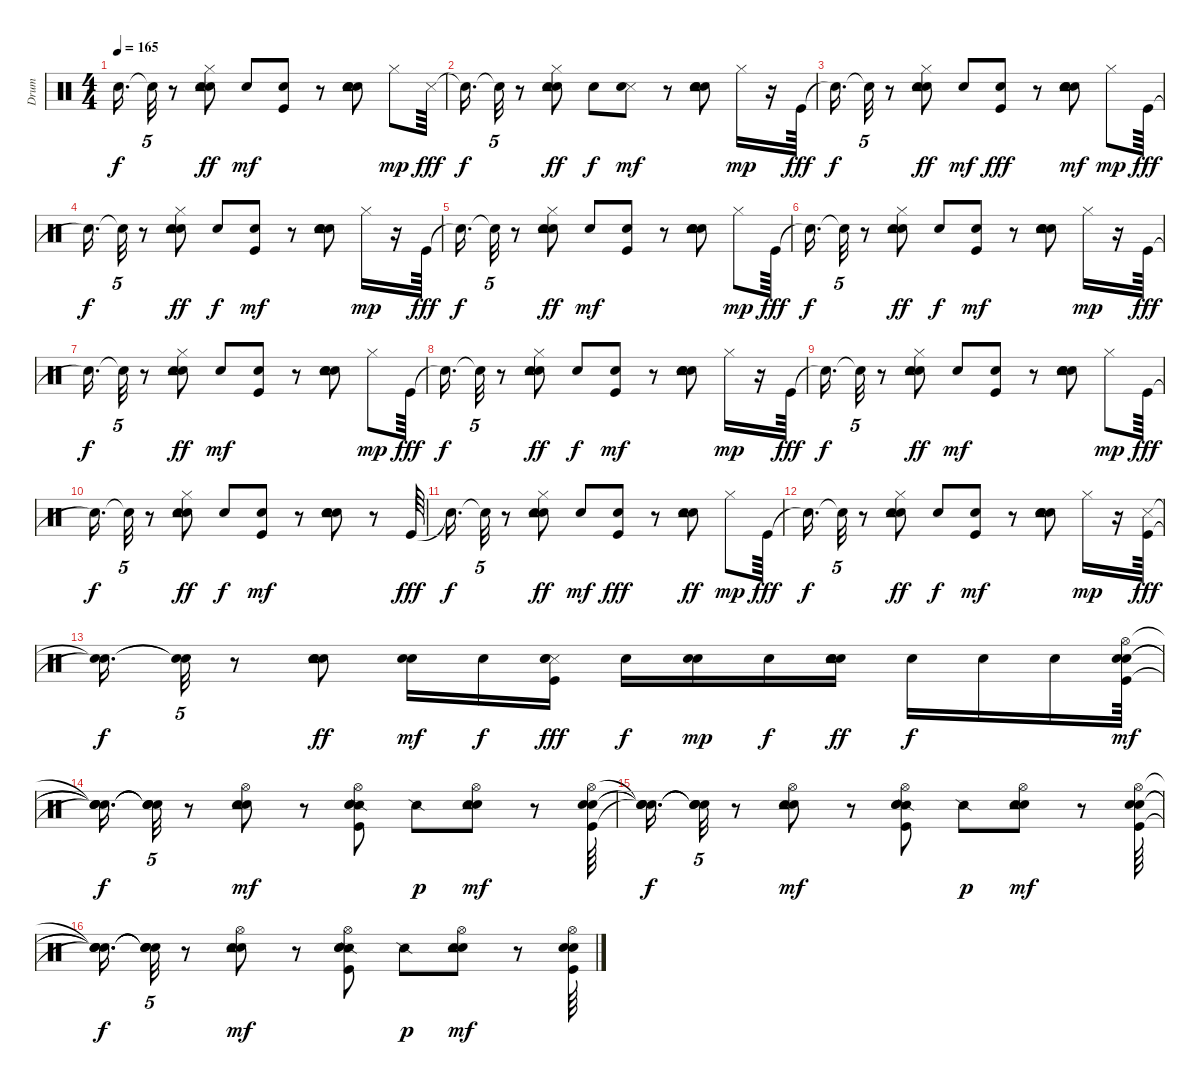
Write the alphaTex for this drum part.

\track ("Drum" "Drum") {instrument percussion}
\staff {score}
\articulation defaults
\ts (4 4)
\tempo 165
\clef neutral
\ks c "Snare (hit)"{t}.16{d dy f} "Snare (hit)"{t}.32{tu (5 4)}
r.8 ("Hand Clap (hit)" "Hi-Hat (closed)" "Tambourine (hit)" "Electric Snare (hit)").8{dy ff} "Hand Clap (hit)".8{dy mf} ("Kick (hit)" "Snare (hit) 2").8 r.8 ("Hand Clap (hit)" "Tambourine (hit)" "Electric Snare (hit)" "Snare (hit) 2").8 "Hi-Hat (closed)".8{dy mp} "Metronome (hit)".64{dy fff} |
"Snare (hit)"{t}.16{d dy f} "Snare (hit)"{t}.32{tu (5 4)} r.8 ("Hand Clap (hit)" "Hi-Hat (closed)" "Tambourine (hit)" "Electric Snare (hit)").8{dy ff} "Hand Clap (hit)".8{dy f} ("Metronome (hit)" "Snare (hit) 2").8{dy mf} r.8 ("Hand Clap (hit)" "Tambourine (hit)" "Electric Snare (hit)" "Snare (hit) 2").8 "Hi-Hat (closed)".16{dy mp} r.16 "Kick (hit)".64{dy fff} |
"Snare (hit)"{t}.16{d dy f} "Snare (hit)"{t}.32{tu (5 4)} r.8 ("Hand Clap (hit)" "Hi-Hat (closed)" "Tambourine (hit)" "Electric Snare (hit)").8{dy ff} "Hand Clap (hit)".8{dy mf} ("Snare (hit) 2" "Kick (hit)").8{dy fff} r.8 ("Hand Clap (hit)" "Tambourine (hit)" "Electric Snare (hit)" "Snare (hit) 2").8{dy mf} "Hi-Hat (closed)".8{dy mp} "Kick (hit)".64{dy fff} |
"Snare (hit)"{t}.16{d dy f} "Snare (hit)"{t}.32{tu (5 4)} r.8 ("Hand Clap (hit)" "Hi-Hat (closed)" "Tambourine (hit)" "Electric Snare (hit)").8{dy ff} "Hand Clap (hit)".8{dy f} ("Kick (hit)" "Snare (hit) 2").8{dy mf} r.8 ("Hand Clap (hit)" "Tambourine (hit)" "Electric Snare (hit)" "Snare (hit) 2").8 "Hi-Hat (closed)".16{dy mp} r.16 "Kick (hit)".64{dy fff} |
"Snare (hit)"{t}.16{d dy f} "Snare (hit)"{t}.32{tu (5 4)} r.8 ("Hand Clap (hit)" "Hi-Hat (closed)" "Tambourine (hit)" "Electric Snare (hit)").8{dy ff} "Hand Clap (hit)".8{dy mf} ("Kick (hit)" "Snare (hit) 2").8 r.8 ("Hand Clap (hit)" "Tambourine (hit)" "Electric Snare (hit)" "Snare (hit) 2").8 "Hi-Hat (closed)".8{dy mp} "Kick (hit)".64{dy fff} |
"Snare (hit)"{t}.16{d dy f} "Snare (hit)"{t}.32{tu (5 4)} r.8 ("Hand Clap (hit)" "Hi-Hat (closed)" "Tambourine (hit)" "Electric Snare (hit)").8{dy ff} "Hand Clap (hit)".8{dy f} ("Kick (hit)" "Snare (hit) 2").8{dy mf} r.8 ("Hand Clap (hit)" "Tambourine (hit)" "Electric Snare (hit)" "Snare (hit) 2").8 "Hi-Hat (closed)".16{dy mp} r.16 "Kick (hit)".64{dy fff} |
"Snare (hit)"{t}.16{d dy f} "Snare (hit)"{t}.32{tu (5 4)} r.8 ("Hand Clap (hit)" "Hi-Hat (closed)" "Tambourine (hit)" "Electric Snare (hit)").8{dy ff} "Hand Clap (hit)".8{dy mf} ("Kick (hit)" "Snare (hit) 2").8 r.8 ("Hand Clap (hit)" "Tambourine (hit)" "Electric Snare (hit)" "Snare (hit) 2").8 "Hi-Hat (closed)".8{dy mp} "Kick (hit)".64{dy fff} |
"Snare (hit)"{t}.16{d dy f} "Snare (hit)"{t}.32{tu (5 4)} r.8 ("Hand Clap (hit)" "Hi-Hat (closed)" "Tambourine (hit)" "Electric Snare (hit)").8{dy ff} "Hand Clap (hit)".8{dy f} ("Kick (hit)" "Snare (hit) 2").8{dy mf} r.8 ("Hand Clap (hit)" "Tambourine (hit)" "Electric Snare (hit)" "Snare (hit) 2").8 "Hi-Hat (closed)".16{dy mp} r.16 "Kick (hit)".64{dy fff} |
"Snare (hit)"{t}.16{d dy f} "Snare (hit)"{t}.32{tu (5 4)} r.8 ("Hand Clap (hit)" "Hi-Hat (closed)" "Tambourine (hit)" "Electric Snare (hit)").8{dy ff} "Hand Clap (hit)".8{dy mf} ("Kick (hit)" "Snare (hit) 2").8 r.8 ("Hand Clap (hit)" "Tambourine (hit)" "Electric Snare (hit)" "Snare (hit) 2").8 "Hi-Hat (closed)".8{dy mp} "Kick (hit)".64{dy fff} |
"Snare (hit)"{t}.16{d dy f} "Snare (hit)"{t}.32{tu (5 4)} r.8 ("Hand Clap (hit)" "Hi-Hat (closed)" "Tambourine (hit)" "Electric Snare (hit)").8{dy ff} "Hand Clap (hit)".8{dy f} ("Kick (hit)" "Snare (hit) 2").8{dy mf} r.8 ("Hand Clap (hit)" "Tambourine (hit)" "Electric Snare (hit)" "Snare (hit) 2").8 r.8 "Kick (hit)".64{dy fff} |
"Snare (hit)"{t}.16{d dy f} "Snare (hit)"{t}.32{tu (5 4)} r.8 ("Hand Clap (hit)" "Hi-Hat (closed)" "Tambourine (hit)" "Electric Snare (hit)").8{dy ff} "Hand Clap (hit)".8{dy mf} ("Snare (hit) 2" "Kick (hit)").8{dy fff} r.8 ("Hand Clap (hit)" "Tambourine (hit)" "Electric Snare (hit)").8{dy ff} "Hi-Hat (closed)".8{dy mp} "Kick (hit)".64{dy fff} |
"Snare (hit)"{t}.16{d dy f} "Snare (hit)"{t}.32{tu (5 4)} r.8 ("Hand Clap (hit)" "Hi-Hat (closed)" "Tambourine (hit)" "Electric Snare (hit)").8{dy ff} "Hand Clap (hit)".8{dy f} ("Kick (hit)" "Snare (hit) 2").8{dy mf} r.8 ("Hand Clap (hit)" "Tambourine (hit)" "Electric Snare (hit)" "Snare (hit) 2").8 "Hi-Hat (closed)".16{dy mp} r.16 ("Metronome (hit)" "Kick (hit)").64{dy fff} |
("Snare (hit)"{t} "Snare (hit)"{t}).16{d dy f} ("Snare (hit)"{t} "Snare (hit)"{t}).32{tu (5 4)} r.8 ("Hand Clap (hit)" "Tambourine (hit)" "Electric Snare (hit)" "Electric Snare (hit)").8{dy ff} ("Hand Clap (hit)" "Electric Snare (hit)").16{dy mf} "Electric Snare (hit)".16{dy f} ("Metronome (hit)" "Electric Snare (hit)" "Snare (hit) 2" "Kick (hit)").16{dy fff} "Electric Snare (hit)".16{dy f} ("Electric Snare (hit)" "Snare (hit) 2").16{dy mp} "Electric Snare (hit)".16{dy f} ("Hand Clap (hit)" "Tambourine (hit)" "Electric Snare (hit)" "Electric Snare (hit)").16{dy ff} "Electric Snare (hit)".16{dy f} "Electric Snare (hit)".16 "Electric Snare (hit)".16 ("Kick (hit)" "Hand Clap (hit)" "Electric Snare (hit)" "Hi-Hat (open)").64{dy mf} |
("Snare (hit)"{t} "Snare (hit)"{t} "Snare (hit)"{t} "Snare (hit)"{t}).16{d dy f} ("Snare (hit)"{t} "Snare (hit)"{t} "Snare (hit)"{t} "Snare (hit)"{t}).32{tu (5 4)} r.8 ("Hand Clap (hit)" "Electric Snare (hit)" "Tambourine (hit)" "Hi-Hat (open)").8{dy mf} r.8 ("Snare (side stick) 2" "Kick (hit)" "Hand Clap (hit)" "Electric Snare (hit)" "Hi-Hat (open)").8 "Snare (side stick) 2".8{dy p} ("Hand Clap (hit)" "Tambourine (hit)" "Electric Snare (hit)" "Hi-Hat (open)").8{dy mf} r.8 ("Kick (hit)" "Hand Clap (hit)" "Electric Snare (hit)" "Hi-Hat (open)").64 |
("Snare (hit)"{t} "Snare (hit)"{t} "Snare (hit)"{t} "Snare (hit)"{t}).16{d dy f} ("Snare (hit)"{t} "Snare (hit)"{t} "Snare (hit)"{t} "Snare (hit)"{t}).32{tu (5 4)} r.8 ("Hand Clap (hit)" "Electric Snare (hit)" "Tambourine (hit)" "Hi-Hat (open)").8{dy mf} r.8 ("Snare (side stick) 2" "Kick (hit)" "Hand Clap (hit)" "Electric Snare (hit)" "Hi-Hat (open)").8 "Snare (side stick) 2".8{dy p} ("Hand Clap (hit)" "Tambourine (hit)" "Electric Snare (hit)" "Hi-Hat (open)").8{dy mf} r.8 ("Kick (hit)" "Hand Clap (hit)" "Electric Snare (hit)" "Hi-Hat (open)").64 |
("Snare (hit)"{t} "Snare (hit)"{t} "Snare (hit)"{t} "Snare (hit)"{t}).16{d dy f} ("Snare (hit)"{t} "Snare (hit)"{t} "Snare (hit)"{t} "Snare (hit)"{t}).32{tu (5 4)} r.8 ("Hand Clap (hit)" "Electric Snare (hit)" "Tambourine (hit)" "Hi-Hat (open)").8{dy mf} r.8 ("Snare (side stick) 2" "Kick (hit)" "Hand Clap (hit)" "Electric Snare (hit)" "Hi-Hat (open)").8 "Snare (side stick) 2".8{dy p} ("Hand Clap (hit)" "Tambourine (hit)" "Electric Snare (hit)" "Hi-Hat (open)").8{dy mf} r.8 ("Kick (hit)" "Hand Clap (hit)" "Electric Snare (hit)" "Hi-Hat (open)").64
